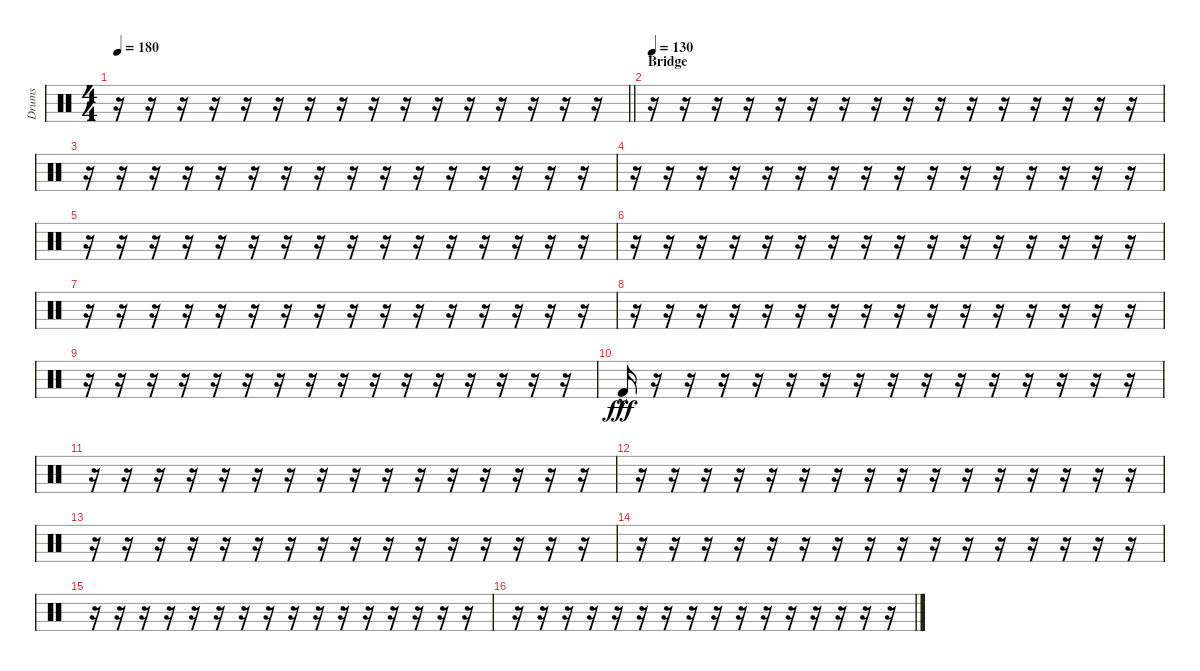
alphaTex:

\track ("Drums" "Drums") {instrument percussion}
\staff {score}
\articulation defaults
\ts (4 4)
\tempo 180
\clef neutral
\barLineRight lightlight
\ks c
r.16{dy f} r.16 r.16 r.16 r.16 r.16 r.16 r.16 r.16 r.16 r.16 r.16 r.16 r.16 r.16 r.16 |
\section ("" "Bridge")
\tempo 130
r.16 r.16 r.16 r.16 r.16 r.16 r.16 r.16 r.16 r.16 r.16 r.16 r.16 r.16 r.16 r.16 |
r.16 r.16 r.16 r.16 r.16 r.16 r.16 r.16 r.16 r.16 r.16 r.16 r.16 r.16 r.16 r.16 |
r.16 r.16 r.16 r.16 r.16 r.16 r.16 r.16 r.16 r.16 r.16 r.16 r.16 r.16 r.16 r.16 |
r.16 r.16 r.16 r.16 r.16 r.16 r.16 r.16 r.16 r.16 r.16 r.16 r.16 r.16 r.16 r.16 |
r.16 r.16 r.16 r.16 r.16 r.16 r.16 r.16 r.16 r.16 r.16 r.16 r.16 r.16 r.16 r.16 |
r.16 r.16 r.16 r.16 r.16 r.16 r.16 r.16 r.16 r.16 r.16 r.16 r.16 r.16 r.16 r.16 |
r.16 r.16 r.16 r.16 r.16 r.16 r.16 r.16 r.16 r.16 r.16 r.16 r.16 r.16 r.16 r.16 |
r.16 r.16 r.16 r.16 r.16 r.16 r.16 r.16 r.16 r.16 r.16 r.16 r.16 r.16 r.16 r.16 |
"Kick (hit) 2"{hac}.16{dy fff} r.16 r.16 r.16 r.16 r.16 r.16 r.16 r.16 r.16 r.16 r.16 r.16 r.16 r.16 r.16 |
r.16 r.16 r.16 r.16 r.16 r.16 r.16 r.16 r.16 r.16 r.16 r.16 r.16 r.16 r.16 r.16 |
r.16 r.16 r.16 r.16 r.16 r.16 r.16 r.16 r.16 r.16 r.16 r.16 r.16 r.16 r.16 r.16 |
r.16 r.16 r.16 r.16 r.16 r.16 r.16 r.16 r.16 r.16 r.16 r.16 r.16 r.16 r.16 r.16 |
r.16 r.16 r.16 r.16 r.16 r.16 r.16 r.16 r.16 r.16 r.16 r.16 r.16 r.16 r.16 r.16 |
r.16 r.16 r.16 r.16 r.16 r.16 r.16 r.16 r.16 r.16 r.16 r.16 r.16 r.16 r.16 r.16 |
r.16 r.16 r.16 r.16 r.16 r.16 r.16 r.16 r.16 r.16 r.16 r.16 r.16 r.16 r.16 r.16
